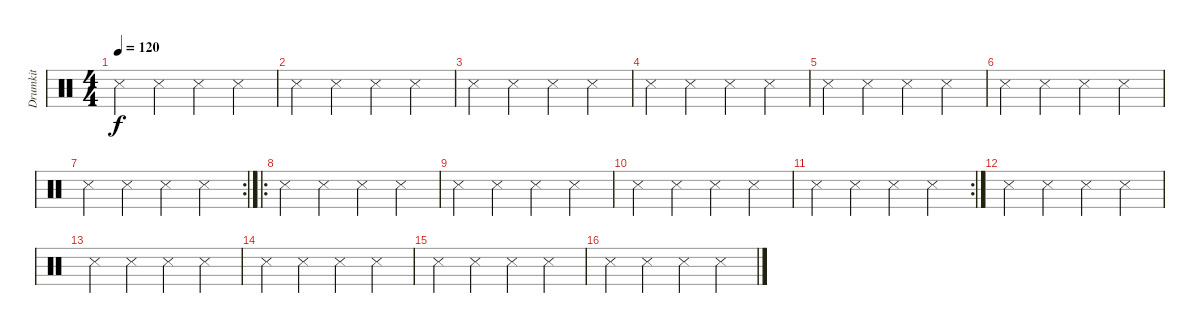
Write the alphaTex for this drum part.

\track ("Drumkit" "Drumkit") {instrument percussion}
\staff {score}
\articulation defaults
\ts (4 4)
\tempo 120
\clef neutral
\ks c "Snare (side stick) 3".4{dy f} "Snare (side stick) 3".4 "Snare (side stick) 3".4 "Snare (side stick) 3".4
|
"Snare (side stick) 3".4 "Snare (side stick) 3".4 "Snare (side stick) 3".4 "Snare (side stick) 3".4 |
"Snare (side stick) 3".4 "Snare (side stick) 3".4 "Snare (side stick) 3".4 "Snare (side stick) 3".4 |
"Snare (side stick) 3".4 "Snare (side stick) 3".4 "Snare (side stick) 3".4 "Snare (side stick) 3".4 |
"Snare (side stick) 3".4 "Snare (side stick) 3".4 "Snare (side stick) 3".4 "Snare (side stick) 3".4 |
"Snare (side stick) 3".4 "Snare (side stick) 3".4 "Snare (side stick) 3".4 "Snare (side stick) 3".4 |
\rc 2 "Snare (side stick) 3".4 "Snare (side stick) 3".4 "Snare (side stick) 3".4 "Snare (side stick) 3".4
|
\ro "Snare (side stick) 3".4 "Snare (side stick) 3".4 "Snare (side stick) 3".4 "Snare (side stick) 3".4
|
"Snare (side stick) 3".4 "Snare (side stick) 3".4 "Snare (side stick) 3".4 "Snare (side stick) 3".4 |
"Snare (side stick) 3".4 "Snare (side stick) 3".4 "Snare (side stick) 3".4 "Snare (side stick) 3".4 |
\rc 2 "Snare (side stick) 3".4 "Snare (side stick) 3".4 "Snare (side stick) 3".4 "Snare (side stick) 3".4
|
"Snare (side stick) 3".4 "Snare (side stick) 3".4 "Snare (side stick) 3".4 "Snare (side stick) 3".4 |
"Snare (side stick) 3".4 "Snare (side stick) 3".4 "Snare (side stick) 3".4 "Snare (side stick) 3".4 |
"Snare (side stick) 3".4 "Snare (side stick) 3".4 "Snare (side stick) 3".4 "Snare (side stick) 3".4 |
"Snare (side stick) 3".4 "Snare (side stick) 3".4 "Snare (side stick) 3".4 "Snare (side stick) 3".4 |
"Snare (side stick) 3".4 "Snare (side stick) 3".4 "Snare (side stick) 3".4 "Snare (side stick) 3".4
